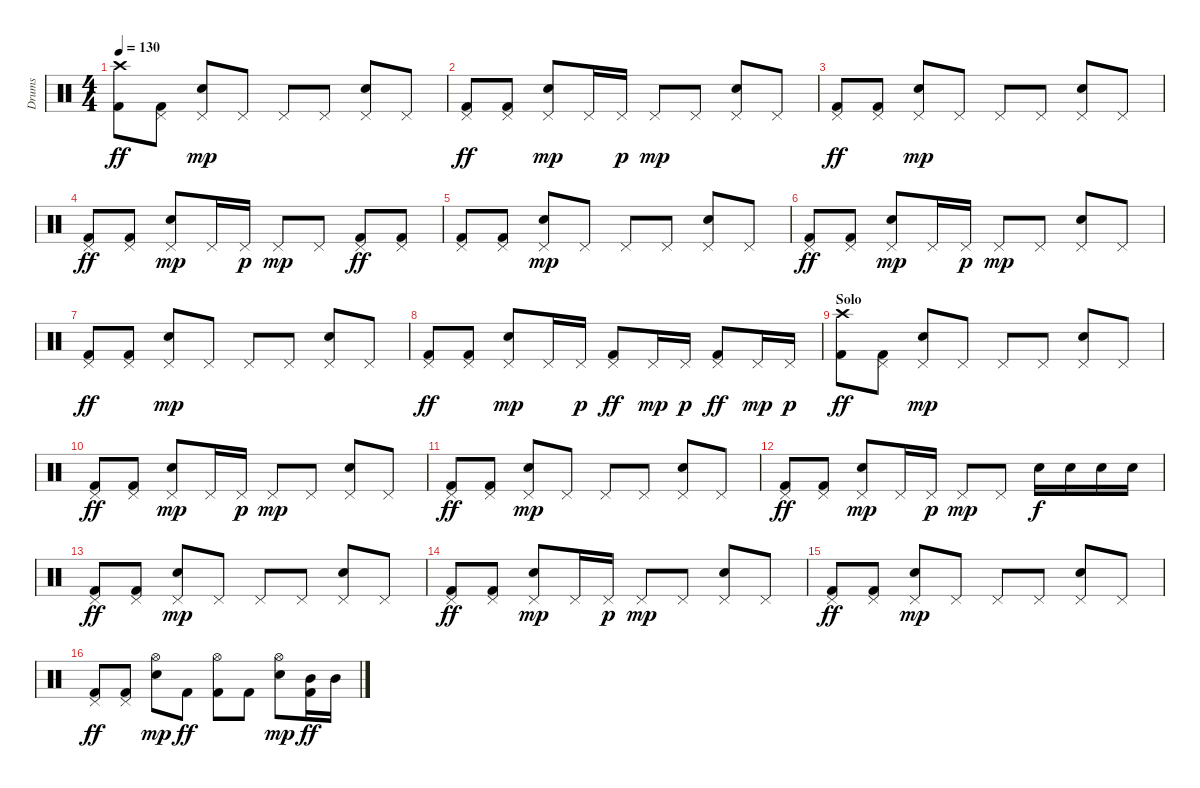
\track ("Drums" "Drums") {instrument percussion}
\staff {score}
\articulation defaults
\ts (4 4)
\section ("" "")
\tempo 130
\clef neutral
\ks c
("Crash high (hit)" "Kick (hit) 2").8{dy ff} ("Pedal Hi-Hat (hit)" "Kick (hit) 2").8 ("Pedal Hi-Hat (hit)" "Electric Snare (hit)").8{dy mp} "Pedal Hi-Hat (hit)".8 "Pedal Hi-Hat (hit)".8 "Pedal Hi-Hat (hit)".8 ("Pedal Hi-Hat (hit)" "Electric Snare (hit)").8 "Pedal Hi-Hat (hit)".8 |
("Pedal Hi-Hat (hit)" "Kick (hit) 2").8{dy ff} ("Pedal Hi-Hat (hit)" "Kick (hit) 2").8 ("Pedal Hi-Hat (hit)" "Electric Snare (hit)").8{dy mp} "Pedal Hi-Hat (hit)".16 "Pedal Hi-Hat (hit)".16{dy p} "Pedal Hi-Hat (hit)".8{dy mp} "Pedal Hi-Hat (hit)".8 ("Pedal Hi-Hat (hit)" "Electric Snare (hit)").8 "Pedal Hi-Hat (hit)".8 |
("Pedal Hi-Hat (hit)" "Kick (hit) 2").8{dy ff} ("Pedal Hi-Hat (hit)" "Kick (hit) 2").8 ("Pedal Hi-Hat (hit)" "Electric Snare (hit)").8{dy mp} "Pedal Hi-Hat (hit)".8 "Pedal Hi-Hat (hit)".8 "Pedal Hi-Hat (hit)".8 ("Pedal Hi-Hat (hit)" "Electric Snare (hit)").8 "Pedal Hi-Hat (hit)".8 |
("Pedal Hi-Hat (hit)" "Kick (hit) 2").8{dy ff} ("Pedal Hi-Hat (hit)" "Kick (hit) 2").8 ("Pedal Hi-Hat (hit)" "Electric Snare (hit)").8{dy mp} "Pedal Hi-Hat (hit)".16 "Pedal Hi-Hat (hit)".16{dy p} "Pedal Hi-Hat (hit)".8{dy mp} "Pedal Hi-Hat (hit)".8 ("Pedal Hi-Hat (hit)" "Kick (hit) 2").8{dy ff} ("Pedal Hi-Hat (hit)" "Kick (hit) 2").8 |
("Pedal Hi-Hat (hit)" "Kick (hit) 2").8 ("Pedal Hi-Hat (hit)" "Kick (hit) 2").8 ("Pedal Hi-Hat (hit)" "Electric Snare (hit)").8{dy mp} "Pedal Hi-Hat (hit)".8 "Pedal Hi-Hat (hit)".8 "Pedal Hi-Hat (hit)".8 ("Pedal Hi-Hat (hit)" "Electric Snare (hit)").8 "Pedal Hi-Hat (hit)".8 |
("Pedal Hi-Hat (hit)" "Kick (hit) 2").8{dy ff} ("Pedal Hi-Hat (hit)" "Kick (hit) 2").8 ("Pedal Hi-Hat (hit)" "Electric Snare (hit)").8{dy mp} "Pedal Hi-Hat (hit)".16 "Pedal Hi-Hat (hit)".16{dy p} "Pedal Hi-Hat (hit)".8{dy mp} "Pedal Hi-Hat (hit)".8 ("Pedal Hi-Hat (hit)" "Electric Snare (hit)").8 "Pedal Hi-Hat (hit)".8 |
("Pedal Hi-Hat (hit)" "Kick (hit) 2").8{dy ff} ("Pedal Hi-Hat (hit)" "Kick (hit) 2").8 ("Pedal Hi-Hat (hit)" "Electric Snare (hit)").8{dy mp} "Pedal Hi-Hat (hit)".8 "Pedal Hi-Hat (hit)".8 "Pedal Hi-Hat (hit)".8 ("Pedal Hi-Hat (hit)" "Electric Snare (hit)").8 "Pedal Hi-Hat (hit)".8 |
("Pedal Hi-Hat (hit)" "Kick (hit) 2").8{dy ff} ("Pedal Hi-Hat (hit)" "Kick (hit) 2").8 ("Pedal Hi-Hat (hit)" "Electric Snare (hit)").8{dy mp} "Pedal Hi-Hat (hit)".16 "Pedal Hi-Hat (hit)".16{dy p} ("Pedal Hi-Hat (hit)" "Kick (hit) 2").8{dy ff} "Pedal Hi-Hat (hit)".16{dy mp} "Pedal Hi-Hat (hit)".16{dy p} ("Pedal Hi-Hat (hit)" "Kick (hit) 2").8{dy ff} "Pedal Hi-Hat (hit)".16{dy mp} "Pedal Hi-Hat (hit)".16{dy p} |
\section ("" "Solo")
("Crash high (hit)" "Kick (hit) 2").8{dy ff} ("Pedal Hi-Hat (hit)" "Kick (hit) 2").8 ("Pedal Hi-Hat (hit)" "Electric Snare (hit)").8{dy mp} "Pedal Hi-Hat (hit)".8 "Pedal Hi-Hat (hit)".8 "Pedal Hi-Hat (hit)".8 ("Pedal Hi-Hat (hit)" "Electric Snare (hit)").8 "Pedal Hi-Hat (hit)".8 |
("Pedal Hi-Hat (hit)" "Kick (hit) 2").8{dy ff} ("Pedal Hi-Hat (hit)" "Kick (hit) 2").8 ("Pedal Hi-Hat (hit)" "Electric Snare (hit)").8{dy mp} "Pedal Hi-Hat (hit)".16 "Pedal Hi-Hat (hit)".16{dy p} "Pedal Hi-Hat (hit)".8{dy mp} "Pedal Hi-Hat (hit)".8 ("Pedal Hi-Hat (hit)" "Electric Snare (hit)").8 "Pedal Hi-Hat (hit)".8 |
("Pedal Hi-Hat (hit)" "Kick (hit) 2").8{dy ff} ("Pedal Hi-Hat (hit)" "Kick (hit) 2").8 ("Pedal Hi-Hat (hit)" "Electric Snare (hit)").8{dy mp} "Pedal Hi-Hat (hit)".8 "Pedal Hi-Hat (hit)".8 "Pedal Hi-Hat (hit)".8 ("Pedal Hi-Hat (hit)" "Electric Snare (hit)").8 "Pedal Hi-Hat (hit)".8 |
("Pedal Hi-Hat (hit)" "Kick (hit) 2").8{dy ff} ("Pedal Hi-Hat (hit)" "Kick (hit) 2").8 ("Pedal Hi-Hat (hit)" "Electric Snare (hit)").8{dy mp} "Pedal Hi-Hat (hit)".16 "Pedal Hi-Hat (hit)".16{dy p} "Pedal Hi-Hat (hit)".8{dy mp} "Pedal Hi-Hat (hit)".8 "Electric Snare (hit)".16{dy f} "Electric Snare (hit)".16 "Electric Snare (hit)".16 "Electric Snare (hit)".16 |
("Pedal Hi-Hat (hit)" "Kick (hit) 2").8{dy ff} ("Pedal Hi-Hat (hit)" "Kick (hit) 2").8 ("Pedal Hi-Hat (hit)" "Electric Snare (hit)").8{dy mp} "Pedal Hi-Hat (hit)".8 "Pedal Hi-Hat (hit)".8 "Pedal Hi-Hat (hit)".8 ("Pedal Hi-Hat (hit)" "Electric Snare (hit)").8 "Pedal Hi-Hat (hit)".8 |
("Pedal Hi-Hat (hit)" "Kick (hit) 2").8{dy ff} ("Pedal Hi-Hat (hit)" "Kick (hit) 2").8 ("Pedal Hi-Hat (hit)" "Electric Snare (hit)").8{dy mp} "Pedal Hi-Hat (hit)".16 "Pedal Hi-Hat (hit)".16{dy p} "Pedal Hi-Hat (hit)".8{dy mp} "Pedal Hi-Hat (hit)".8 ("Pedal Hi-Hat (hit)" "Electric Snare (hit)").8 "Pedal Hi-Hat (hit)".8 |
("Pedal Hi-Hat (hit)" "Kick (hit) 2").8{dy ff} ("Pedal Hi-Hat (hit)" "Kick (hit) 2").8 ("Pedal Hi-Hat (hit)" "Electric Snare (hit)").8{dy mp} "Pedal Hi-Hat (hit)".8 "Pedal Hi-Hat (hit)".8 "Pedal Hi-Hat (hit)".8 ("Pedal Hi-Hat (hit)" "Electric Snare (hit)").8 "Pedal Hi-Hat (hit)".8 |
("Pedal Hi-Hat (hit)" "Kick (hit) 2").8{dy ff} ("Pedal Hi-Hat (hit)" "Kick (hit) 2").8 ("Hi-Hat (open)" "Electric Snare (hit)").8{dy mp} "Kick (hit) 2".8{dy ff} ("Hi-Hat (open)" "Kick (hit) 2").8 "Kick (hit) 2".8 ("Hi-Hat (open)" "Electric Snare (hit)").8{dy mp} ("Mid Tom (hit)" "Kick (hit) 2").16{dy ff} "Mid Tom (hit)".16
